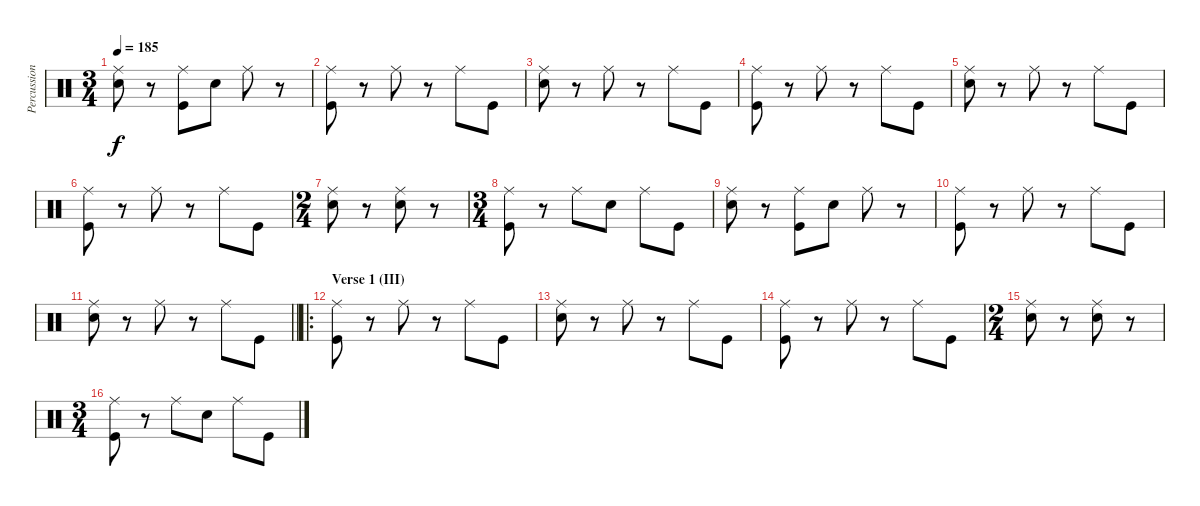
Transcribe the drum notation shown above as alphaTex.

\track ("Percussion" "Percussion") {instrument percussion}
\staff {score}
\articulation defaults
\ts (3 4)
\tempo 185
\clef neutral
\ks c
("Ride (middle)" "Snare (hit) 2").8{dy f} r.8 ("Ride (middle)" "Kick (hit)").8 "Snare (hit) 2".8 "Ride (middle)".8 r.8 |
("Ride (middle)" "Kick (hit)").8 r.8 "Ride (middle)".8 r.8 "Ride (middle)".8 "Kick (hit)".8 |
("Ride (middle)" "Snare (hit) 2").8 r.8 "Ride (middle)".8 r.8 "Ride (middle)".8 "Kick (hit)".8 |
("Ride (middle)" "Kick (hit)").8 r.8 "Ride (middle)".8 r.8 "Ride (middle)".8 "Kick (hit)".8 |
("Ride (middle)" "Snare (hit) 2").8 r.8 "Ride (middle)".8 r.8 "Ride (middle)".8 "Kick (hit)".8 |
("Ride (middle)" "Kick (hit)").8 r.8 "Ride (middle)".8 r.8 "Ride (middle)".8 "Kick (hit)".8 |
\ts (2 4)
("Ride (middle)" "Snare (hit) 2").8 r.8 ("Ride (middle)" "Snare (hit) 2").8 r.8 |
\ts (3 4)
("Ride (middle)" "Kick (hit)").8 r.8 "Ride (middle)".8 "Snare (hit) 2".8 "Ride (middle)".8 "Kick (hit)".8 |
("Ride (middle)" "Snare (hit) 2").8 r.8 ("Ride (middle)" "Kick (hit)").8 "Snare (hit) 2".8 "Ride (middle)".8 r.8 |
("Ride (middle)" "Kick (hit)").8 r.8 "Ride (middle)".8 r.8 "Ride (middle)".8 "Kick (hit)".8 |
\barLineRight lightlight
("Ride (middle)" "Snare (hit) 2").8 r.8 "Ride (middle)".8 r.8 "Ride (middle)".8 "Kick (hit)".8 |
\ro
\section ("" "Verse 1 (III)")
("Ride (middle)" "Kick (hit)").8 r.8 "Ride (middle)".8 r.8 "Ride (middle)".8 "Kick (hit)".8 |
("Ride (middle)" "Snare (hit) 2").8 r.8 "Ride (middle)".8 r.8 "Ride (middle)".8 "Kick (hit)".8 |
("Ride (middle)" "Kick (hit)").8 r.8 "Ride (middle)".8 r.8 "Ride (middle)".8 "Kick (hit)".8 |
\ts (2 4)
("Ride (middle)" "Snare (hit) 2").8 r.8 ("Ride (middle)" "Snare (hit) 2").8 r.8 |
\ts (3 4)
("Ride (middle)" "Kick (hit)").8 r.8 "Ride (middle)".8 "Snare (hit) 2".8 "Ride (middle)".8 "Kick (hit)".8
